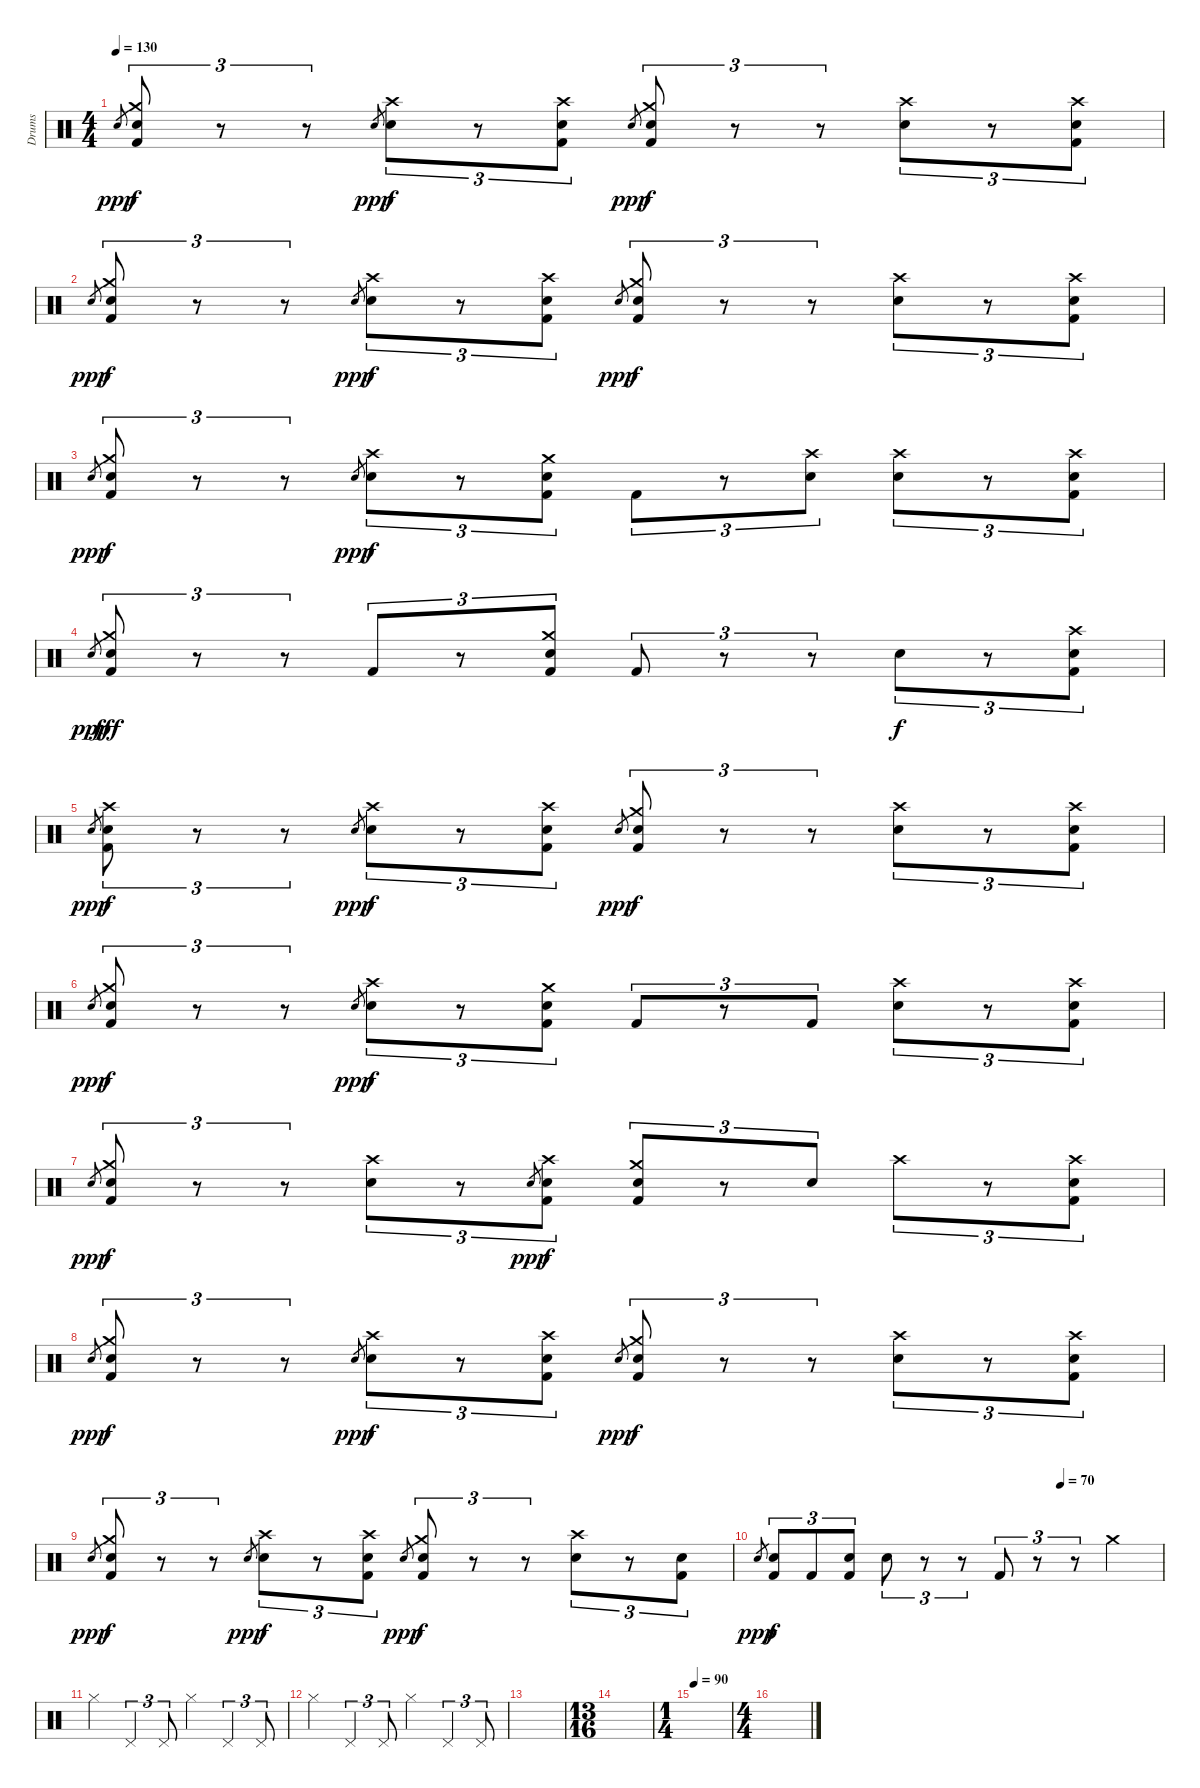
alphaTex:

\track ("Drums" "Drums") {instrument percussion}
\staff {score}
\articulation defaults
\ts (4 4)
\tempo 130
\clef neutral
\ks c "Snare (hit) 2".8{gr dy ppp}
("Crash medium (hit)" "Snare (hit) 2" "Kick (hit) 2").8{tu (3 2) dy f} r.8{tu (3 2)} r.8{tu (3 2)} "Snare (hit) 2".8{gr dy ppp} ("Crash high (hit)" "Snare (hit) 2").8{tu (3 2) dy f} r.8{tu (3 2)} ("Crash high (hit)" "Snare (hit) 2" "Kick (hit) 2").8{tu (3 2)} "Snare (hit) 2".8{gr dy ppp} ("Crash medium (hit)" "Snare (hit) 2" "Kick (hit) 2").8{tu (3 2) dy f} r.8{tu (3 2)} r.8{tu (3 2)} ("Crash high (hit)" "Snare (hit) 2").8{tu (3 2)} r.8{tu (3 2)} ("Crash high (hit)" "Snare (hit) 2" "Kick (hit) 2").8{tu (3 2)} |
"Snare (hit) 2".8{gr dy ppp} ("Crash medium (hit)" "Snare (hit) 2" "Kick (hit) 2").8{tu (3 2) dy f} r.8{tu (3 2)} r.8{tu (3 2)} "Snare (hit) 2".8{gr dy ppp} ("Crash high (hit)" "Snare (hit) 2").8{tu (3 2) dy f} r.8{tu (3 2)} ("Crash high (hit)" "Snare (hit) 2" "Kick (hit) 2").8{tu (3 2)} "Snare (hit) 2".8{gr dy ppp} ("Crash medium (hit)" "Snare (hit) 2" "Kick (hit) 2").8{tu (3 2) dy f} r.8{tu (3 2)} r.8{tu (3 2)} ("Crash high (hit)" "Snare (hit) 2").8{tu (3 2)} r.8{tu (3 2)} ("Crash high (hit)" "Snare (hit) 2" "Kick (hit) 2").8{tu (3 2)} |
"Snare (hit) 2".8{gr dy ppp} ("Crash medium (hit)" "Snare (hit) 2" "Kick (hit) 2").8{tu (3 2) dy f} r.8{tu (3 2)} r.8{tu (3 2)} "Snare (hit) 2".8{gr dy ppp} ("Crash high (hit)" "Snare (hit) 2").8{tu (3 2) dy f} r.8{tu (3 2)} ("Crash medium (hit)" "Snare (hit) 2" "Kick (hit) 2").8{tu (3 2)} "Kick (hit) 2".8{tu (3 2)} r.8{tu (3 2)} ("Crash high (hit)" "Snare (hit) 2").8{tu (3 2)} ("Crash high (hit)" "Snare (hit) 2").8{tu (3 2)} r.8{tu (3 2)} ("Crash high (hit)" "Snare (hit) 2" "Kick (hit) 2").8{tu (3 2)} |
"Snare (hit) 2".8{gr dy ppp} ("Crash medium (hit)" "Snare (hit) 2" "Kick (hit) 2").8{tu (3 2) dy fff} r.8{tu (3 2)} r.8{tu (3 2)} "Kick (hit) 2".8{tu (3 2)} r.8{tu (3 2)} ("Crash medium (hit)" "Snare (hit) 2" "Kick (hit) 2").8{tu (3 2)} "Kick (hit) 2".8{tu (3 2)} r.8{tu (3 2)} r.8{tu (3 2)} "Snare (hit) 2".8{tu (3 2) dy f} r.8{tu (3 2)} ("Crash high (hit)" "Snare (hit) 2" "Kick (hit) 2").8{tu (3 2)} |
"Snare (hit) 2".8{gr dy ppp} ("Crash high (hit)" "Snare (hit) 2" "Kick (hit) 2").8{tu (3 2) dy f} r.8{tu (3 2)} r.8{tu (3 2)} "Snare (hit) 2".8{gr dy ppp} ("Crash high (hit)" "Snare (hit) 2").8{tu (3 2) dy f} r.8{tu (3 2)} ("Crash high (hit)" "Snare (hit) 2" "Kick (hit) 2").8{tu (3 2)} "Snare (hit) 2".8{gr dy ppp} ("Crash medium (hit)" "Snare (hit) 2" "Kick (hit) 2").8{tu (3 2) dy f} r.8{tu (3 2)} r.8{tu (3 2)} ("Crash high (hit)" "Snare (hit) 2").8{tu (3 2)} r.8{tu (3 2)} ("Crash high (hit)" "Snare (hit) 2" "Kick (hit) 2").8{tu (3 2)} |
"Snare (hit) 2".8{gr dy ppp} ("Crash medium (hit)" "Snare (hit) 2" "Kick (hit) 2").8{tu (3 2) dy f} r.8{tu (3 2)} r.8{tu (3 2)} "Snare (hit) 2".8{gr dy ppp} ("Crash high (hit)" "Snare (hit) 2").8{tu (3 2) dy f} r.8{tu (3 2)} ("Crash medium (hit)" "Snare (hit) 2" "Kick (hit) 2").8{tu (3 2)} "Kick (hit) 2".8{tu (3 2)} r.8{tu (3 2)} "Kick (hit) 2".8{tu (3 2)} ("Crash high (hit)" "Snare (hit) 2").8{tu (3 2)} r.8{tu (3 2)} ("Crash high (hit)" "Snare (hit) 2" "Kick (hit) 2").8{tu (3 2)} |
"Snare (hit) 2".8{gr dy ppp} ("Crash medium (hit)" "Snare (hit) 2" "Kick (hit) 2").8{tu (3 2) dy f} r.8{tu (3 2)} r.8{tu (3 2)} ("Crash high (hit)" "Snare (hit) 2").8{tu (3 2)} r.8{tu (3 2)} "Snare (hit) 2".8{gr dy ppp} ("Crash high (hit)" "Snare (hit) 2" "Kick (hit) 2").8{tu (3 2) dy f} ("Crash medium (hit)" "Snare (hit) 2" "Kick (hit) 2").8{tu (3 2)} r.8{tu (3 2)} "Snare (hit) 2".8{tu (3 2)} "Crash high (hit)".8{tu (3 2)} r.8{tu (3 2)} ("Crash high (hit)" "Snare (hit) 2" "Kick (hit) 2").8{tu (3 2)} |
"Snare (hit) 2".8{gr dy ppp} ("Crash medium (hit)" "Snare (hit) 2" "Kick (hit) 2").8{tu (3 2) dy f} r.8{tu (3 2)} r.8{tu (3 2)} "Snare (hit) 2".8{gr dy ppp} ("Crash high (hit)" "Snare (hit) 2").8{tu (3 2) dy f} r.8{tu (3 2)} ("Crash high (hit)" "Snare (hit) 2" "Kick (hit) 2").8{tu (3 2)} "Snare (hit) 2".8{gr dy ppp} ("Crash medium (hit)" "Snare (hit) 2" "Kick (hit) 2").8{tu (3 2) dy f} r.8{tu (3 2)} r.8{tu (3 2)} ("Crash high (hit)" "Snare (hit) 2").8{tu (3 2)} r.8{tu (3 2)} ("Crash high (hit)" "Snare (hit) 2" "Kick (hit) 2").8{tu (3 2)} |
"Snare (hit) 2".8{gr dy ppp} ("Crash medium (hit)" "Snare (hit) 2" "Kick (hit) 2").8{tu (3 2) dy f} r.8{tu (3 2)} r.8{tu (3 2)} "Snare (hit) 2".8{gr dy ppp} ("Crash high (hit)" "Snare (hit) 2").8{tu (3 2) dy f} r.8{tu (3 2)} ("Crash high (hit)" "Snare (hit) 2" "Kick (hit) 2").8{tu (3 2)} "Snare (hit) 2".8{gr dy ppp} ("Crash medium (hit)" "Snare (hit) 2" "Kick (hit) 2").8{tu (3 2) dy f} r.8{tu (3 2)} r.8{tu (3 2)} ("Crash high (hit)" "Snare (hit) 2").8{tu (3 2)} r.8{tu (3 2)} ("Snare (hit) 2" "Kick (hit) 2").8{tu (3 2)} |
\tempo (70 0.75)
"Snare (hit) 2".8{gr dy ppp} ("Snare (hit) 2" "Kick (hit) 2").8{tu (3 2) dy f} "Kick (hit) 2".8{tu (3 2)} ("Snare (hit) 2" "Kick (hit) 2").8{tu (3 2)} "Snare (hit) 2".8{tu (3 2)} r.8{tu (3 2)} r.8{tu (3 2)} "Kick (hit) 2".8{tu (3 2)} r.8{tu (3 2)} r.8{tu (3 2)} "Crash medium (hit)".4 |
"Hi-Hat (closed)".4 "Pedal Hi-Hat (hit)".4{tu (3 2)} "Pedal Hi-Hat (hit)".8{tu (3 2)} "Hi-Hat (closed)".4 "Pedal Hi-Hat (hit)".4{tu (3 2)} "Pedal Hi-Hat (hit)".8{tu (3 2)} |
"Hi-Hat (closed)".4 "Pedal Hi-Hat (hit)".4{tu (3 2)} "Pedal Hi-Hat (hit)".8{tu (3 2)} "Hi-Hat (closed)".4 "Pedal Hi-Hat (hit)".4{tu (3 2)} "Pedal Hi-Hat (hit)".8{tu (3 2)} |
|
\ts (13 16)
|
\ts (1 4)
\tempo 90
|
\ts (4 4)
